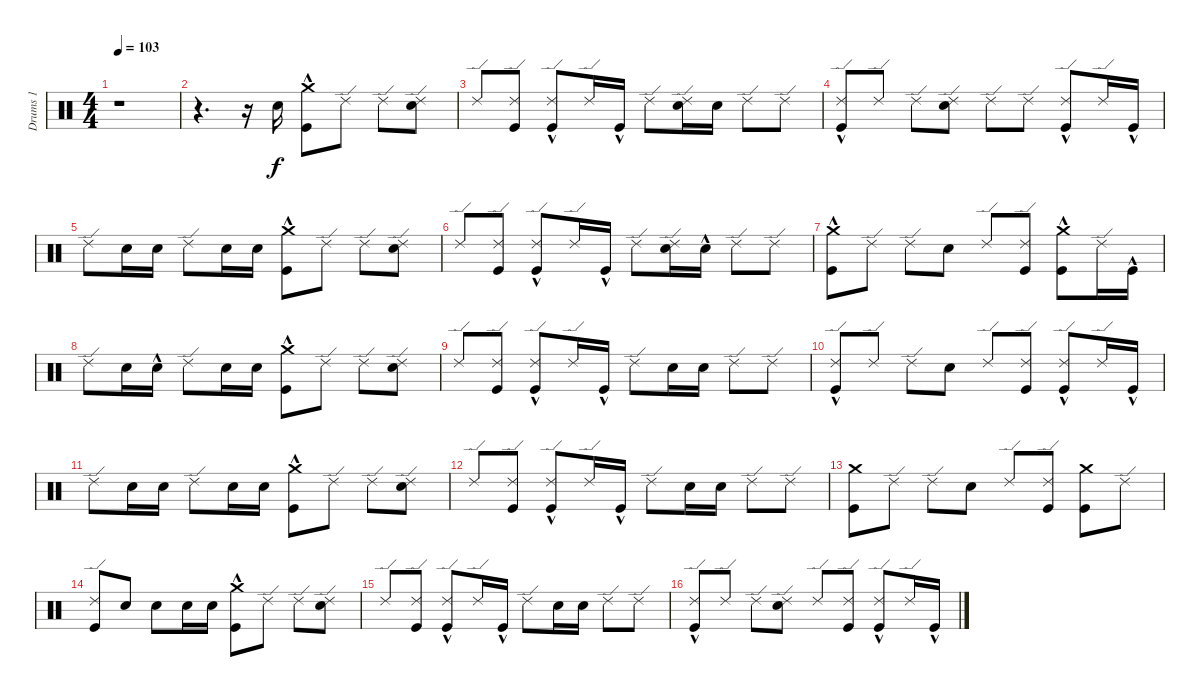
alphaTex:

\track ("Drums 1" "Drums 1") {instrument percussion}
\staff {score}
\articulation defaults
\ts (4 4)
\tempo 103
\clef neutral
\ks c
r.1{dy f} |
r.4{d} r.16 "Electric Snare (hit)".16 ("Kick (hit)"{hac} "Crash medium (hit)").8 "Ride (edge) 2".8 "Ride (edge) 2".8 ("Ride (edge) 2" "Electric Snare (hit)").8 |
"Ride (edge) 2".8 ("Kick (hit)" "Ride (edge) 2").8 ("Kick (hit)"{hac} "Ride (edge) 2").8 "Ride (edge) 2".16 "Kick (hit)"{hac}.16 "Ride (edge) 2".8 ("Ride (edge) 2" "Electric Snare (hit)").16 "Electric Snare (hit)".16 "Ride (edge) 2".8 "Ride (edge) 2".8 |
("Kick (hit)"{hac} "Ride (edge) 2").8 "Ride (edge) 2".8 "Ride (edge) 2".8 ("Electric Snare (hit)" "Ride (edge) 2").8 "Ride (edge) 2".8 "Ride (edge) 2".8 ("Kick (hit)"{hac} "Ride (edge) 2").8 "Ride (edge) 2".16 "Kick (hit)"{hac}.16 |
"Ride (edge) 2".8 "Electric Snare (hit)".16 "Electric Snare (hit)".16 "Ride (edge) 2".8 "Electric Snare (hit)".16 "Electric Snare (hit)".16 ("Kick (hit)"{hac} "Crash medium (hit)").8 "Ride (edge) 2".8 "Ride (edge) 2".8 ("Ride (edge) 2" "Electric Snare (hit)").8 |
"Ride (edge) 2".8 ("Kick (hit)" "Ride (edge) 2").8 ("Kick (hit)"{hac} "Ride (edge) 2").8 "Ride (edge) 2".16 "Kick (hit)"{hac}.16 "Ride (edge) 2".8 ("Ride (edge) 2" "Electric Snare (hit)").16 "Electric Snare (hit)"{hac}.16 "Ride (edge) 2".8 "Ride (edge) 2".8 |
("Kick (hit)"{hac} "Crash medium (hit)").8 "Ride (edge) 2".8 "Ride (edge) 2".8 "Electric Snare (hit)".8 "Ride (edge) 2".8 ("Kick (hit)" "Ride (edge) 2").8 ("Crash medium (hit)" "Kick (hit)"{hac}).8 "Ride (edge) 2".16 "Kick (hit)"{hac}.16 |
"Ride (edge) 2".8 "Electric Snare (hit)".16 "Electric Snare (hit)"{hac}.16 "Ride (edge) 2".8 "Electric Snare (hit)".16 "Electric Snare (hit)".16 ("Kick (hit)"{hac} "Crash medium (hit)").8 "Ride (edge) 2".8 "Ride (edge) 2".8 ("Ride (edge) 2" "Electric Snare (hit)").8 |
"Ride (edge) 2".8 ("Kick (hit)" "Ride (edge) 2").8 ("Kick (hit)"{hac} "Ride (edge) 2").8 "Ride (edge) 2".16 "Kick (hit)"{hac}.16 "Ride (edge) 2".8 "Electric Snare (hit)".16 "Electric Snare (hit)".16 "Ride (edge) 2".8 "Ride (edge) 2".8 |
("Kick (hit)"{hac} "Ride (edge) 2").8 "Ride (edge) 2".8 "Ride (edge) 2".8 "Electric Snare (hit)".8 "Ride (edge) 2".8 ("Kick (hit)" "Ride (edge) 2").8 ("Kick (hit)"{hac} "Ride (edge) 2").8 "Ride (edge) 2".16 "Kick (hit)"{hac}.16 |
"Ride (edge) 2".8 "Electric Snare (hit)".16 "Electric Snare (hit)".16 "Ride (edge) 2".8 "Electric Snare (hit)".16 "Electric Snare (hit)".16 ("Kick (hit)"{hac} "Crash medium (hit)").8 "Ride (edge) 2".8 "Ride (edge) 2".8 ("Electric Snare (hit)" "Ride (edge) 2").8 |
"Ride (edge) 2".8 ("Kick (hit)" "Ride (edge) 2").8 ("Kick (hit)"{hac} "Ride (edge) 2").8 "Ride (edge) 2".16 "Kick (hit)"{hac}.16 "Ride (edge) 2".8 "Electric Snare (hit)".16 "Electric Snare (hit)".16 "Ride (edge) 2".8 "Ride (edge) 2".8 |
("Kick (hit)" "Crash medium (hit)").8 "Ride (edge) 2".8 "Ride (edge) 2".8 "Electric Snare (hit)".8 "Ride (edge) 2".8 ("Kick (hit)" "Ride (edge) 2").8 ("Kick (hit)" "Crash medium (hit)").8 "Ride (edge) 2".8 |
("Kick (hit)" "Ride (edge) 2").8 "Electric Snare (hit)".8 "Electric Snare (hit)".8 "Electric Snare (hit)".16 "Electric Snare (hit)".16 ("Kick (hit)"{hac} "Crash medium (hit)").8 "Ride (edge) 2".8 "Ride (edge) 2".8 ("Electric Snare (hit)" "Ride (edge) 2").8 |
"Ride (edge) 2".8 ("Kick (hit)" "Ride (edge) 2").8 ("Kick (hit)"{hac} "Ride (edge) 2").8 "Ride (edge) 2".16 "Kick (hit)"{hac}.16 "Ride (edge) 2".8 "Electric Snare (hit)".16 "Electric Snare (hit)".16 "Ride (edge) 2".8 "Ride (edge) 2".8 |
("Kick (hit)"{hac} "Ride (edge) 2").8 "Ride (edge) 2".8 "Ride (edge) 2".8 ("Electric Snare (hit)" "Ride (edge) 2").8 "Ride (edge) 2".8 ("Kick (hit)" "Ride (edge) 2").8 ("Kick (hit)"{hac} "Ride (edge) 2").8 "Ride (edge) 2".16 "Kick (hit)"{hac}.16
